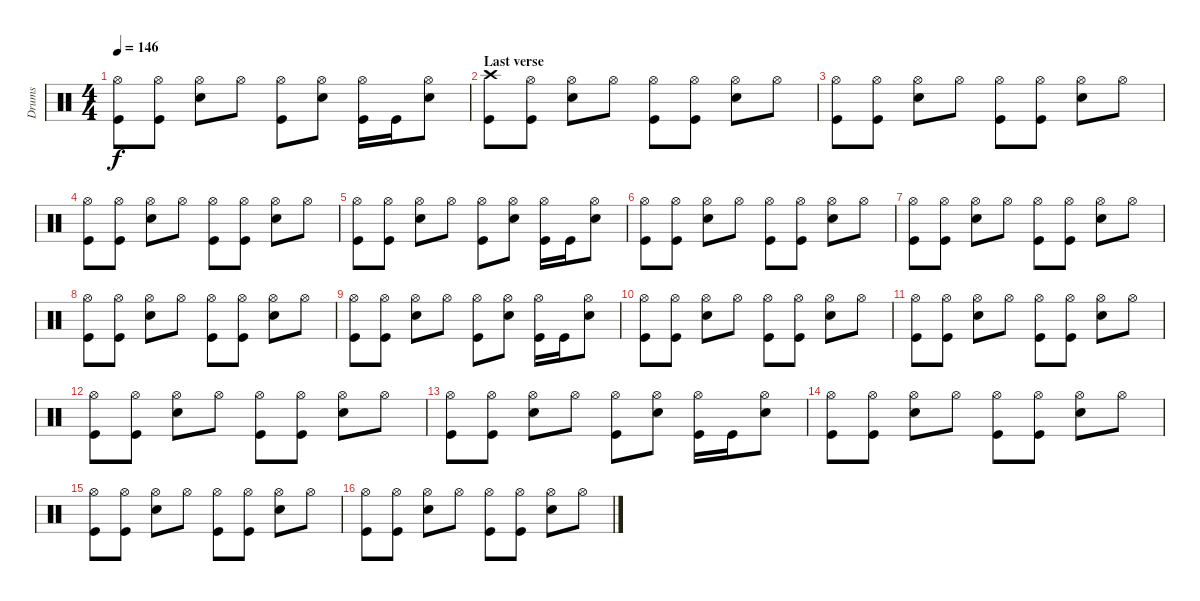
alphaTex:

\track ("Drums" "Drums") {instrument percussion}
\staff {score}
\articulation defaults
\ts (4 4)
\tempo 146
\clef neutral
\ks c
("Hi-Hat (open)" "Kick (hit)").8{dy f} ("Hi-Hat (open)" "Kick (hit)").8 ("Hi-Hat (open)" "Snare (hit) 2").8 "Hi-Hat (open)".8 ("Hi-Hat (open)" "Kick (hit)").8 ("Hi-Hat (open)" "Snare (hit) 2").8 ("Hi-Hat (open)" "Kick (hit)").16 "Kick (hit)".16 ("Hi-Hat (open)" "Snare (hit) 2").8 |
\section ("" "Last verse")
("Crash high (hit)" "Kick (hit)").8 ("Hi-Hat (open)" "Kick (hit)").8 ("Hi-Hat (open)" "Snare (hit) 2").8 "Hi-Hat (open)".8 ("Hi-Hat (open)" "Kick (hit)").8 ("Hi-Hat (open)" "Kick (hit)").8 ("Hi-Hat (open)" "Snare (hit) 2").8 "Hi-Hat (open)".8 |
("Hi-Hat (open)" "Kick (hit)").8 ("Hi-Hat (open)" "Kick (hit)").8 ("Hi-Hat (open)" "Snare (hit) 2").8 "Hi-Hat (open)".8 ("Hi-Hat (open)" "Kick (hit)").8 ("Hi-Hat (open)" "Kick (hit)").8 ("Hi-Hat (open)" "Snare (hit) 2").8 "Hi-Hat (open)".8 |
("Hi-Hat (open)" "Kick (hit)").8 ("Hi-Hat (open)" "Kick (hit)").8 ("Hi-Hat (open)" "Snare (hit) 2").8 "Hi-Hat (open)".8 ("Hi-Hat (open)" "Kick (hit)").8 ("Hi-Hat (open)" "Kick (hit)").8 ("Hi-Hat (open)" "Snare (hit) 2").8 "Hi-Hat (open)".8 |
("Hi-Hat (open)" "Kick (hit)").8 ("Hi-Hat (open)" "Kick (hit)").8 ("Hi-Hat (open)" "Snare (hit) 2").8 "Hi-Hat (open)".8 ("Hi-Hat (open)" "Kick (hit)").8 ("Hi-Hat (open)" "Snare (hit) 2").8 ("Hi-Hat (open)" "Kick (hit)").16 "Kick (hit)".16 ("Hi-Hat (open)" "Snare (hit) 2").8 |
("Hi-Hat (open)" "Kick (hit)").8 ("Hi-Hat (open)" "Kick (hit)").8 ("Hi-Hat (open)" "Snare (hit) 2").8 "Hi-Hat (open)".8 ("Hi-Hat (open)" "Kick (hit)").8 ("Hi-Hat (open)" "Kick (hit)").8 ("Hi-Hat (open)" "Snare (hit) 2").8 "Hi-Hat (open)".8 |
("Hi-Hat (open)" "Kick (hit)").8 ("Hi-Hat (open)" "Kick (hit)").8 ("Hi-Hat (open)" "Snare (hit) 2").8 "Hi-Hat (open)".8 ("Hi-Hat (open)" "Kick (hit)").8 ("Hi-Hat (open)" "Kick (hit)").8 ("Hi-Hat (open)" "Snare (hit) 2").8 "Hi-Hat (open)".8 |
("Hi-Hat (open)" "Kick (hit)").8 ("Hi-Hat (open)" "Kick (hit)").8 ("Hi-Hat (open)" "Snare (hit) 2").8 "Hi-Hat (open)".8 ("Hi-Hat (open)" "Kick (hit)").8 ("Hi-Hat (open)" "Kick (hit)").8 ("Hi-Hat (open)" "Snare (hit) 2").8 "Hi-Hat (open)".8 |
("Hi-Hat (open)" "Kick (hit)").8 ("Hi-Hat (open)" "Kick (hit)").8 ("Hi-Hat (open)" "Snare (hit) 2").8 "Hi-Hat (open)".8 ("Hi-Hat (open)" "Kick (hit)").8 ("Hi-Hat (open)" "Snare (hit) 2").8 ("Hi-Hat (open)" "Kick (hit)").16 "Kick (hit)".16 ("Hi-Hat (open)" "Snare (hit) 2").8 |
("Hi-Hat (open)" "Kick (hit)").8 ("Hi-Hat (open)" "Kick (hit)").8 ("Hi-Hat (open)" "Snare (hit) 2").8 "Hi-Hat (open)".8 ("Hi-Hat (open)" "Kick (hit)").8 ("Hi-Hat (open)" "Kick (hit)").8 ("Hi-Hat (open)" "Snare (hit) 2").8 "Hi-Hat (open)".8 |
("Hi-Hat (open)" "Kick (hit)").8 ("Hi-Hat (open)" "Kick (hit)").8 ("Hi-Hat (open)" "Snare (hit) 2").8 "Hi-Hat (open)".8 ("Hi-Hat (open)" "Kick (hit)").8 ("Hi-Hat (open)" "Kick (hit)").8 ("Hi-Hat (open)" "Snare (hit) 2").8 "Hi-Hat (open)".8 |
("Hi-Hat (open)" "Kick (hit)").8 ("Hi-Hat (open)" "Kick (hit)").8 ("Hi-Hat (open)" "Snare (hit) 2").8 "Hi-Hat (open)".8 ("Hi-Hat (open)" "Kick (hit)").8 ("Hi-Hat (open)" "Kick (hit)").8 ("Hi-Hat (open)" "Snare (hit) 2").8 "Hi-Hat (open)".8 |
("Hi-Hat (open)" "Kick (hit)").8 ("Hi-Hat (open)" "Kick (hit)").8 ("Hi-Hat (open)" "Snare (hit) 2").8 "Hi-Hat (open)".8 ("Hi-Hat (open)" "Kick (hit)").8 ("Hi-Hat (open)" "Snare (hit) 2").8 ("Hi-Hat (open)" "Kick (hit)").16 "Kick (hit)".16 ("Hi-Hat (open)" "Snare (hit) 2").8 |
("Hi-Hat (open)" "Kick (hit)").8 ("Hi-Hat (open)" "Kick (hit)").8 ("Hi-Hat (open)" "Snare (hit) 2").8 "Hi-Hat (open)".8 ("Hi-Hat (open)" "Kick (hit)").8 ("Hi-Hat (open)" "Kick (hit)").8 ("Hi-Hat (open)" "Snare (hit) 2").8 "Hi-Hat (open)".8 |
("Hi-Hat (open)" "Kick (hit)").8 ("Hi-Hat (open)" "Kick (hit)").8 ("Hi-Hat (open)" "Snare (hit) 2").8 "Hi-Hat (open)".8 ("Hi-Hat (open)" "Kick (hit)").8 ("Hi-Hat (open)" "Kick (hit)").8 ("Hi-Hat (open)" "Snare (hit) 2").8 "Hi-Hat (open)".8 |
("Hi-Hat (open)" "Kick (hit)").8 ("Hi-Hat (open)" "Kick (hit)").8 ("Hi-Hat (open)" "Snare (hit) 2").8 "Hi-Hat (open)".8 ("Hi-Hat (open)" "Kick (hit)").8 ("Hi-Hat (open)" "Kick (hit)").8 ("Hi-Hat (open)" "Snare (hit) 2").8 "Hi-Hat (open)".8
